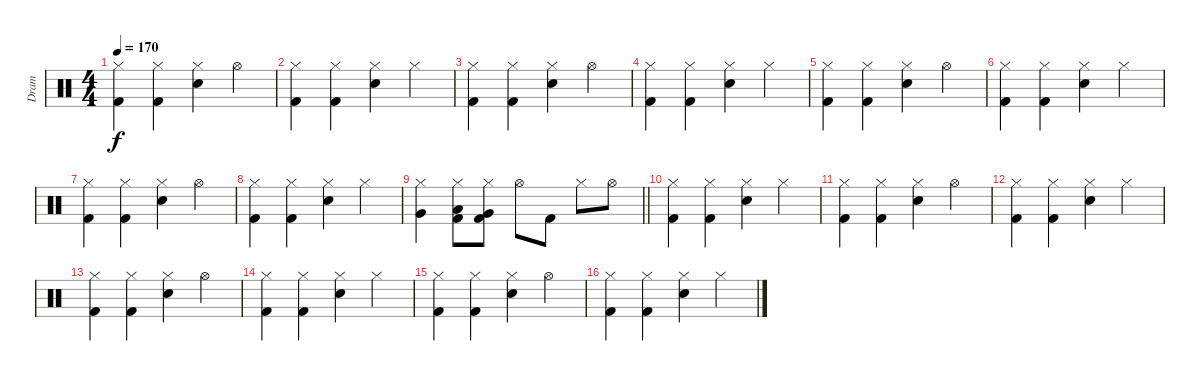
\track ("Dram" "Dram") {instrument percussion}
\staff {score}
\articulation defaults
\ts (4 4)
\tempo 170
\clef neutral
\ks c
("Hi-Hat (closed)" "Kick (hit) 2").4{dy f} ("Hi-Hat (closed)" "Kick (hit) 2").4 ("Hi-Hat (closed)" "Electric Snare (hit)").4 "Hi-Hat (open)".4 |
("Hi-Hat (closed)" "Kick (hit) 2").4 ("Hi-Hat (closed)" "Kick (hit) 2").4 ("Hi-Hat (closed)" "Electric Snare (hit)").4 "Hi-Hat (closed)".4 |
("Hi-Hat (closed)" "Kick (hit) 2").4 ("Hi-Hat (closed)" "Kick (hit) 2").4 ("Hi-Hat (closed)" "Electric Snare (hit)").4 "Hi-Hat (open)".4 |
("Hi-Hat (closed)" "Kick (hit) 2").4 ("Hi-Hat (closed)" "Kick (hit) 2").4 ("Hi-Hat (closed)" "Electric Snare (hit)").4 "Hi-Hat (closed)".4 |
("Hi-Hat (closed)" "Kick (hit) 2").4 ("Hi-Hat (closed)" "Kick (hit) 2").4 ("Hi-Hat (closed)" "Electric Snare (hit)").4 "Hi-Hat (open)".4 |
("Hi-Hat (closed)" "Kick (hit) 2").4 ("Hi-Hat (closed)" "Kick (hit) 2").4 ("Hi-Hat (closed)" "Electric Snare (hit)").4 "Hi-Hat (closed)".4 |
("Hi-Hat (closed)" "Kick (hit) 2").4 ("Hi-Hat (closed)" "Kick (hit) 2").4 ("Hi-Hat (closed)" "Electric Snare (hit)").4 "Hi-Hat (open)".4 |
("Hi-Hat (closed)" "Kick (hit) 2").4 ("Hi-Hat (closed)" "Kick (hit) 2").4 ("Hi-Hat (closed)" "Electric Snare (hit)").4 "Hi-Hat (closed)".4 |
\barLineRight lightlight
("Hi-Hat (closed)" "Very Low Tom (hit)").4 ("Hi-Hat (closed)" "Low Tom (hit)" "Kick (hit) 2").8 ("Hi-Hat (closed)" "Very Low Tom (hit)" "Kick (hit) 2").8 "Hi-Hat (open)".8 "Kick (hit) 2".8 "Hi-Hat (closed)".8 "Hi-Hat (open)".8 |
("Hi-Hat (closed)" "Kick (hit) 2").4 ("Hi-Hat (closed)" "Kick (hit) 2").4 ("Hi-Hat (closed)" "Electric Snare (hit)").4 "Hi-Hat (closed)".4 |
("Hi-Hat (closed)" "Kick (hit) 2").4 ("Hi-Hat (closed)" "Kick (hit) 2").4 ("Hi-Hat (closed)" "Electric Snare (hit)").4 "Hi-Hat (open)".4 |
("Hi-Hat (closed)" "Kick (hit) 2").4 ("Hi-Hat (closed)" "Kick (hit) 2").4 ("Hi-Hat (closed)" "Electric Snare (hit)").4 "Hi-Hat (closed)".4 |
("Hi-Hat (closed)" "Kick (hit) 2").4 ("Hi-Hat (closed)" "Kick (hit) 2").4 ("Hi-Hat (closed)" "Electric Snare (hit)").4 "Hi-Hat (open)".4 |
("Hi-Hat (closed)" "Kick (hit) 2").4 ("Hi-Hat (closed)" "Kick (hit) 2").4 ("Hi-Hat (closed)" "Electric Snare (hit)").4 "Hi-Hat (closed)".4 |
("Hi-Hat (closed)" "Kick (hit) 2").4 ("Hi-Hat (closed)" "Kick (hit) 2").4 ("Hi-Hat (closed)" "Electric Snare (hit)").4 "Hi-Hat (open)".4 |
("Hi-Hat (closed)" "Kick (hit) 2").4 ("Hi-Hat (closed)" "Kick (hit) 2").4 ("Hi-Hat (closed)" "Electric Snare (hit)").4 "Hi-Hat (closed)".4
